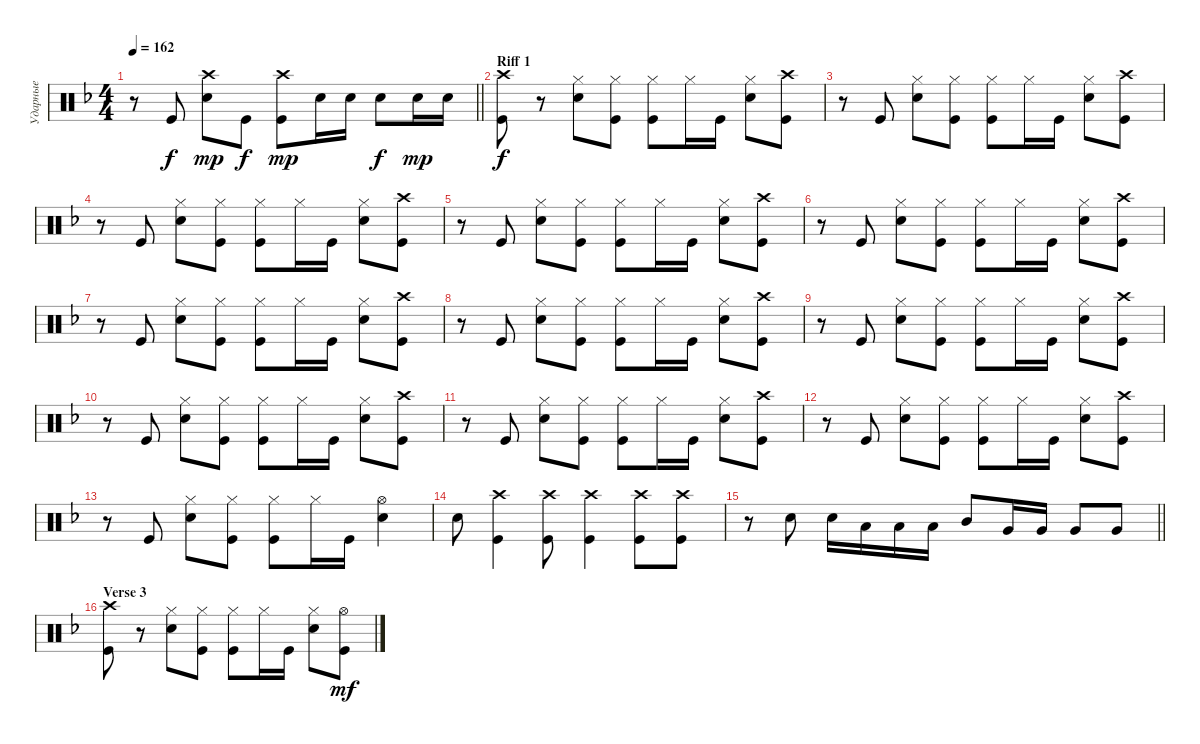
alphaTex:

\track ("Ударные" "Ударные") {instrument percussion}
\staff {score}
\articulation defaults
\ts (4 4)
\tempo 162
\clef neutral
\barLineRight lightlight
\ks dminor
r.8{dy f} "Kick (hit)".8 ("Snare (hit) 2" "Crash high (hit)").8{dy mp} "Kick (hit)".8{dy f} ("Kick (hit)" "Crash high (hit)").8{dy mp} "Snare (hit) 2".16 "Snare (hit) 2".16 "Snare (hit) 2".8{dy f} "Snare (hit) 2".16{dy mp} "Snare (hit) 2".16 |
\section ("" "Riff 1")
("Kick (hit)" "Crash high (hit)").8{dy f} r.8 ("Hi-Hat (closed)" "Snare (hit) 2").8 ("Hi-Hat (closed)" "Kick (hit)").8 ("Hi-Hat (closed)" "Kick (hit)").8 "Hi-Hat (closed)".16 "Kick (hit)".16 ("Hi-Hat (closed)" "Snare (hit) 2").8 ("Crash high (hit)" "Kick (hit)").8 |
r.8 "Kick (hit)".8 ("Hi-Hat (closed)" "Snare (hit) 2").8 ("Hi-Hat (closed)" "Kick (hit)").8 ("Hi-Hat (closed)" "Kick (hit)").8 "Hi-Hat (closed)".16 "Kick (hit)".16 ("Hi-Hat (closed)" "Snare (hit) 2").8 ("Crash high (hit)" "Kick (hit)").8 |
r.8 "Kick (hit)".8 ("Hi-Hat (closed)" "Snare (hit) 2").8 ("Hi-Hat (closed)" "Kick (hit)").8 ("Hi-Hat (closed)" "Kick (hit)").8 "Hi-Hat (closed)".16 "Kick (hit)".16 ("Hi-Hat (closed)" "Snare (hit) 2").8 ("Crash high (hit)" "Kick (hit)").8 |
r.8 "Kick (hit)".8 ("Hi-Hat (closed)" "Snare (hit) 2").8 ("Hi-Hat (closed)" "Kick (hit)").8 ("Hi-Hat (closed)" "Kick (hit)").8 "Hi-Hat (closed)".16 "Kick (hit)".16 ("Hi-Hat (closed)" "Snare (hit) 2").8 ("Crash high (hit)" "Kick (hit)").8 |
r.8 "Kick (hit)".8 ("Hi-Hat (closed)" "Snare (hit) 2").8 ("Hi-Hat (closed)" "Kick (hit)").8 ("Hi-Hat (closed)" "Kick (hit)").8 "Hi-Hat (closed)".16 "Kick (hit)".16 ("Hi-Hat (closed)" "Snare (hit) 2").8 ("Crash high (hit)" "Kick (hit)").8 |
r.8 "Kick (hit)".8 ("Hi-Hat (closed)" "Snare (hit) 2").8 ("Hi-Hat (closed)" "Kick (hit)").8 ("Hi-Hat (closed)" "Kick (hit)").8 "Hi-Hat (closed)".16 "Kick (hit)".16 ("Hi-Hat (closed)" "Snare (hit) 2").8 ("Crash high (hit)" "Kick (hit)").8 |
r.8 "Kick (hit)".8 ("Hi-Hat (closed)" "Snare (hit) 2").8 ("Hi-Hat (closed)" "Kick (hit)").8 ("Hi-Hat (closed)" "Kick (hit)").8 "Hi-Hat (closed)".16 "Kick (hit)".16 ("Hi-Hat (closed)" "Snare (hit) 2").8 ("Crash high (hit)" "Kick (hit)").8 |
r.8 "Kick (hit)".8 ("Hi-Hat (closed)" "Snare (hit) 2").8 ("Hi-Hat (closed)" "Kick (hit)").8 ("Hi-Hat (closed)" "Kick (hit)").8 "Hi-Hat (closed)".16 "Kick (hit)".16 ("Hi-Hat (closed)" "Snare (hit) 2").8 ("Crash high (hit)" "Kick (hit)").8 |
r.8 "Kick (hit)".8 ("Hi-Hat (closed)" "Snare (hit) 2").8 ("Hi-Hat (closed)" "Kick (hit)").8 ("Hi-Hat (closed)" "Kick (hit)").8 "Hi-Hat (closed)".16 "Kick (hit)".16 ("Hi-Hat (closed)" "Snare (hit) 2").8 ("Crash high (hit)" "Kick (hit)").8 |
r.8 "Kick (hit)".8 ("Hi-Hat (closed)" "Snare (hit) 2").8 ("Hi-Hat (closed)" "Kick (hit)").8 ("Hi-Hat (closed)" "Kick (hit)").8 "Hi-Hat (closed)".16 "Kick (hit)".16 ("Hi-Hat (closed)" "Snare (hit) 2").8 ("Crash high (hit)" "Kick (hit)").8 |
r.8 "Kick (hit)".8 ("Hi-Hat (closed)" "Snare (hit) 2").8 ("Hi-Hat (closed)" "Kick (hit)").8 ("Hi-Hat (closed)" "Kick (hit)").8 "Hi-Hat (closed)".16 "Kick (hit)".16 ("Hi-Hat (closed)" "Snare (hit) 2").8 ("Crash high (hit)" "Kick (hit)").8 |
r.8 "Kick (hit)".8 ("Hi-Hat (closed)" "Snare (hit) 2").8 ("Hi-Hat (closed)" "Kick (hit)").8 ("Hi-Hat (closed)" "Kick (hit)").8 "Hi-Hat (closed)".16 "Kick (hit)".16 ("Hi-Hat (open)" "Snare (hit) 2").4 |
"Snare (hit) 2".8 ("Kick (hit)" "Crash high (hit)").4 ("Kick (hit)" "Crash high (hit)").8 ("Kick (hit)" "Crash high (hit)").4 ("Kick (hit)" "Crash high (hit)").8 ("Kick (hit)" "Crash high (hit)").8 |
\barLineRight lightlight
r.8 "Snare (hit) 2".8 "Snare (hit) 2".16 "Low Tom (hit)".16 "Low Tom (hit)".16 "Low Tom (hit)".16 "Mid Tom (hit)".8 "Very Low Tom (hit)".16 "Very Low Tom (hit)".16 "Very Low Tom (hit)".8 "Very Low Tom (hit)".8 |
\section ("" "Verse 3")
("Kick (hit)" "Crash high (hit)").8 r.8 ("Hi-Hat (closed)" "Snare (hit) 2").8 ("Hi-Hat (closed)" "Kick (hit)").8 ("Hi-Hat (closed)" "Kick (hit)").8 "Hi-Hat (closed)".16 "Kick (hit)".16 ("Hi-Hat (closed)" "Snare (hit) 2").8 ("Hi-Hat (open)" "Kick (hit)").8{dy mf}
